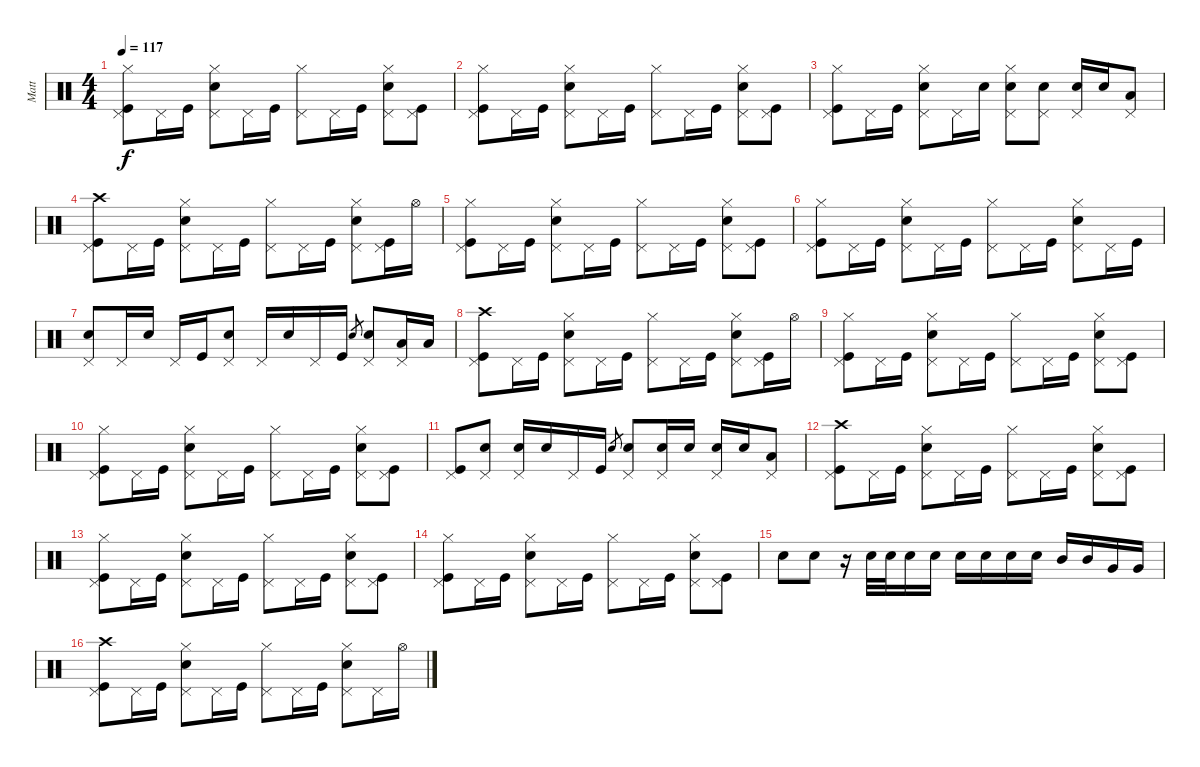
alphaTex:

\track ("Matt" "Matt") {instrument percussion}
\staff {score}
\articulation defaults
\ts (4 4)
\tempo 117
\clef neutral
\ks c
("Hi-Hat (closed)" "Kick (hit)" "Pedal Hi-Hat (hit)").8{dy f} "Pedal Hi-Hat (hit)".16 "Kick (hit)".16 ("Hi-Hat (closed)" "Snare (hit) 2" "Pedal Hi-Hat (hit)").8 "Pedal Hi-Hat (hit)".16 "Kick (hit)".16 ("Hi-Hat (closed)" "Pedal Hi-Hat (hit)").8 "Pedal Hi-Hat (hit)".16 "Kick (hit)".16 ("Hi-Hat (closed)" "Snare (hit) 2" "Pedal Hi-Hat (hit)").8 ("Kick (hit)" "Pedal Hi-Hat (hit)").8 |
("Hi-Hat (closed)" "Kick (hit)" "Pedal Hi-Hat (hit)").8 "Pedal Hi-Hat (hit)".16 "Kick (hit)".16 ("Hi-Hat (closed)" "Snare (hit) 2" "Pedal Hi-Hat (hit)").8 "Pedal Hi-Hat (hit)".16 "Kick (hit)".16 ("Hi-Hat (closed)" "Pedal Hi-Hat (hit)").8 "Pedal Hi-Hat (hit)".16 "Kick (hit)".16 ("Hi-Hat (closed)" "Snare (hit) 2" "Pedal Hi-Hat (hit)").8 ("Kick (hit)" "Pedal Hi-Hat (hit)").8 |
("Hi-Hat (closed)" "Kick (hit)" "Pedal Hi-Hat (hit)").8 "Pedal Hi-Hat (hit)".16 "Kick (hit)".16 ("Hi-Hat (closed)" "Snare (hit) 2" "Pedal Hi-Hat (hit)").8 "Pedal Hi-Hat (hit)".16 "Snare (hit) 2".16 ("Hi-Hat (closed)" "Snare (hit) 2" "Pedal Hi-Hat (hit)").8 ("Snare (hit) 2" "Pedal Hi-Hat (hit)").8 ("Snare (hit) 2" "Pedal Hi-Hat (hit)").16 "Snare (hit) 2".16 ("Low Tom (hit)" "Pedal Hi-Hat (hit)").8 |
("Crash high (hit)" "Kick (hit)" "Pedal Hi-Hat (hit)").8 "Pedal Hi-Hat (hit)".16 "Kick (hit)".16 ("Hi-Hat (closed)" "Snare (hit) 2" "Pedal Hi-Hat (hit)").8 "Pedal Hi-Hat (hit)".16 "Kick (hit)".16 ("Hi-Hat (closed)" "Pedal Hi-Hat (hit)").8 "Pedal Hi-Hat (hit)".16 "Kick (hit)".16 ("Hi-Hat (closed)" "Snare (hit) 2" "Pedal Hi-Hat (hit)").8 ("Kick (hit)" "Pedal Hi-Hat (hit)").16 "Hi-Hat (open)".16 |
("Hi-Hat (closed)" "Kick (hit)" "Pedal Hi-Hat (hit)").8 "Pedal Hi-Hat (hit)".16 "Kick (hit)".16 ("Hi-Hat (closed)" "Snare (hit) 2" "Pedal Hi-Hat (hit)").8 "Pedal Hi-Hat (hit)".16 "Kick (hit)".16 ("Hi-Hat (closed)" "Pedal Hi-Hat (hit)").8 "Pedal Hi-Hat (hit)".16 "Kick (hit)".16 ("Hi-Hat (closed)" "Snare (hit) 2" "Pedal Hi-Hat (hit)").8 ("Kick (hit)" "Pedal Hi-Hat (hit)").8 |
("Hi-Hat (closed)" "Kick (hit)" "Pedal Hi-Hat (hit)").8 "Pedal Hi-Hat (hit)".16 "Kick (hit)".16 ("Hi-Hat (closed)" "Snare (hit) 2" "Pedal Hi-Hat (hit)").8 "Pedal Hi-Hat (hit)".16 "Kick (hit)".16 ("Hi-Hat (closed)" "Pedal Hi-Hat (hit)").8 "Pedal Hi-Hat (hit)".16 "Kick (hit)".16 ("Hi-Hat (closed)" "Snare (hit) 2" "Pedal Hi-Hat (hit)").8 "Pedal Hi-Hat (hit)".16 "Kick (hit)".16 |
("Snare (hit) 2" "Pedal Hi-Hat (hit)").8 "Pedal Hi-Hat (hit)".16 "Snare (hit) 2".16 "Pedal Hi-Hat (hit)".16 "Kick (hit)".16 ("Snare (hit) 2" "Pedal Hi-Hat (hit)").8 "Pedal Hi-Hat (hit)".16 "Snare (hit) 2".16 "Pedal Hi-Hat (hit)".16 "Kick (hit)".16 "Snare (hit) 2".8{gr} ("Snare (hit) 2" "Pedal Hi-Hat (hit)").8 ("Low Tom (hit)" "Pedal Hi-Hat (hit)").16 "Low Tom (hit)".16 |
("Crash high (hit)" "Kick (hit)" "Pedal Hi-Hat (hit)").8 "Pedal Hi-Hat (hit)".16 "Kick (hit)".16 ("Hi-Hat (closed)" "Snare (hit) 2" "Pedal Hi-Hat (hit)").8 "Pedal Hi-Hat (hit)".16 "Kick (hit)".16 ("Hi-Hat (closed)" "Pedal Hi-Hat (hit)").8 "Pedal Hi-Hat (hit)".16 "Kick (hit)".16 ("Hi-Hat (closed)" "Snare (hit) 2" "Pedal Hi-Hat (hit)").8 ("Kick (hit)" "Pedal Hi-Hat (hit)").16 "Hi-Hat (open)".16 |
("Hi-Hat (closed)" "Kick (hit)" "Pedal Hi-Hat (hit)").8 "Pedal Hi-Hat (hit)".16 "Kick (hit)".16 ("Hi-Hat (closed)" "Snare (hit) 2" "Pedal Hi-Hat (hit)").8 "Pedal Hi-Hat (hit)".16 "Kick (hit)".16 ("Hi-Hat (closed)" "Pedal Hi-Hat (hit)").8 "Pedal Hi-Hat (hit)".16 "Kick (hit)".16 ("Hi-Hat (closed)" "Snare (hit) 2" "Pedal Hi-Hat (hit)").8 ("Kick (hit)" "Pedal Hi-Hat (hit)").8 |
("Hi-Hat (closed)" "Kick (hit)" "Pedal Hi-Hat (hit)").8 "Pedal Hi-Hat (hit)".16 "Kick (hit)".16 ("Hi-Hat (closed)" "Snare (hit) 2" "Pedal Hi-Hat (hit)").8 "Pedal Hi-Hat (hit)".16 "Kick (hit)".16 ("Hi-Hat (closed)" "Pedal Hi-Hat (hit)").8 "Pedal Hi-Hat (hit)".16 "Kick (hit)".16 ("Hi-Hat (closed)" "Snare (hit) 2" "Pedal Hi-Hat (hit)").8 ("Kick (hit)" "Pedal Hi-Hat (hit)").8 |
("Kick (hit)" "Pedal Hi-Hat (hit)").8 ("Snare (hit) 2" "Pedal Hi-Hat (hit)").8 ("Snare (hit) 2" "Pedal Hi-Hat (hit)").16 "Snare (hit) 2".16 "Pedal Hi-Hat (hit)".16 "Kick (hit)".16 "Snare (hit) 2".8{gr} ("Snare (hit) 2" "Pedal Hi-Hat (hit)").8 ("Snare (hit) 2" "Pedal Hi-Hat (hit)").16 "Snare (hit) 2".16 ("Snare (hit) 2" "Pedal Hi-Hat (hit)").16 "Snare (hit) 2".16 ("Low Tom (hit)" "Pedal Hi-Hat (hit)").8 |
("Crash high (hit)" "Kick (hit)" "Pedal Hi-Hat (hit)").8 "Pedal Hi-Hat (hit)".16 "Kick (hit)".16 ("Hi-Hat (closed)" "Snare (hit) 2" "Pedal Hi-Hat (hit)").8 "Pedal Hi-Hat (hit)".16 "Kick (hit)".16 ("Hi-Hat (closed)" "Pedal Hi-Hat (hit)").8 "Pedal Hi-Hat (hit)".16 "Kick (hit)".16 ("Hi-Hat (closed)" "Snare (hit) 2" "Pedal Hi-Hat (hit)").8 ("Kick (hit)" "Pedal Hi-Hat (hit)").8 |
("Hi-Hat (closed)" "Kick (hit)" "Pedal Hi-Hat (hit)").8 "Pedal Hi-Hat (hit)".16 "Kick (hit)".16 ("Hi-Hat (closed)" "Snare (hit) 2" "Pedal Hi-Hat (hit)").8 "Pedal Hi-Hat (hit)".16 "Kick (hit)".16 ("Hi-Hat (closed)" "Pedal Hi-Hat (hit)").8 "Pedal Hi-Hat (hit)".16 "Kick (hit)".16 ("Hi-Hat (closed)" "Snare (hit) 2" "Pedal Hi-Hat (hit)").8 ("Kick (hit)" "Pedal Hi-Hat (hit)").8 |
("Hi-Hat (closed)" "Kick (hit)" "Pedal Hi-Hat (hit)").8 "Pedal Hi-Hat (hit)".16 "Kick (hit)".16 ("Hi-Hat (closed)" "Snare (hit) 2" "Pedal Hi-Hat (hit)").8 "Pedal Hi-Hat (hit)".16 "Kick (hit)".16 ("Hi-Hat (closed)" "Pedal Hi-Hat (hit)").8 "Pedal Hi-Hat (hit)".16 "Kick (hit)".16 ("Hi-Hat (closed)" "Snare (hit) 2" "Pedal Hi-Hat (hit)").8 ("Kick (hit)" "Pedal Hi-Hat (hit)").8 |
"Snare (hit) 2".8 "Snare (hit) 2".8 r.16 "Snare (hit) 2".32 "Snare (hit) 2".32 "Snare (hit) 2".16 "Snare (hit) 2".16 "Snare (hit) 2".16 "Snare (hit) 2".16 "Snare (hit) 2".16 "Snare (hit) 2".16 "Mid Tom (hit)".16 "Mid Tom (hit)".16 "Very Low Tom (hit)".16 "Very Low Tom (hit)".16 |
("Crash high (hit)" "Kick (hit)" "Pedal Hi-Hat (hit)").8 "Pedal Hi-Hat (hit)".16 "Kick (hit)".16 ("Hi-Hat (closed)" "Snare (hit) 2" "Pedal Hi-Hat (hit)").8 "Pedal Hi-Hat (hit)".16 "Kick (hit)".16 ("Hi-Hat (closed)" "Pedal Hi-Hat (hit)").8 "Pedal Hi-Hat (hit)".16 "Kick (hit)".16 ("Hi-Hat (closed)" "Snare (hit) 2" "Pedal Hi-Hat (hit)").8 "Pedal Hi-Hat (hit)".16 "Hi-Hat (open)".16
